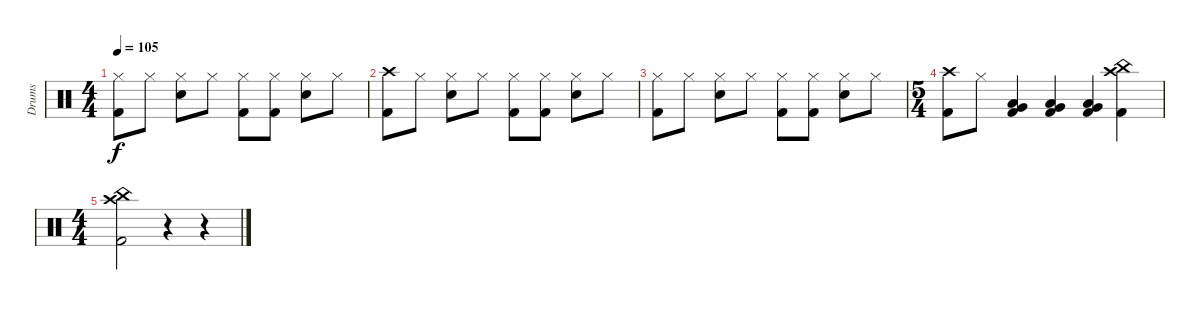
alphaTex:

\track ("Drums" "Drums") {instrument percussion}
\staff {score}
\articulation defaults
\ts (4 4)
\tempo 105
\clef neutral
\ks c
("Hi-Hat (closed)" "Kick (hit) 2").8{dy f} "Hi-Hat (closed)".8 ("Hi-Hat (closed)" "Snare (hit) 2").8 "Hi-Hat (closed)".8 ("Hi-Hat (closed)" "Kick (hit) 2").8 ("Hi-Hat (closed)" "Kick (hit) 2").8 ("Hi-Hat (closed)" "Snare (hit) 2").8 "Hi-Hat (closed)".8 |
("Crash high (hit)" "Kick (hit) 2").8 "Hi-Hat (closed)".8 ("Hi-Hat (closed)" "Snare (hit) 2").8 "Hi-Hat (closed)".8 ("Hi-Hat (closed)" "Kick (hit) 2").8 ("Hi-Hat (closed)" "Kick (hit) 2").8 ("Hi-Hat (closed)" "Snare (hit) 2").8 "Hi-Hat (closed)".8 |
("Hi-Hat (closed)" "Kick (hit) 2").8 "Hi-Hat (closed)".8 ("Hi-Hat (closed)" "Snare (hit) 2").8 "Hi-Hat (closed)".8 ("Hi-Hat (closed)" "Kick (hit) 2").8 ("Hi-Hat (closed)" "Kick (hit) 2").8 ("Hi-Hat (closed)" "Snare (hit) 2").8 "Hi-Hat (closed)".8 |
\ts (5 4)
("Crash high (hit)" "Kick (hit) 2").8 "Hi-Hat (closed)".8 ("Low Tom (hit)" "Very Low Tom (hit)" "Kick (hit) 2").4 ("Low Tom (hit)" "Very Low Tom (hit)" "Kick (hit) 2").4 ("Low Tom (hit)" "Very Low Tom (hit)" "Kick (hit) 2").4 ("Crash high (hit)" "China (hit)" "Kick (hit) 2").4 |
\ts (4 4)
("Crash high (hit)" "China (hit)" "Kick (hit) 2").2 r.4 r.4
